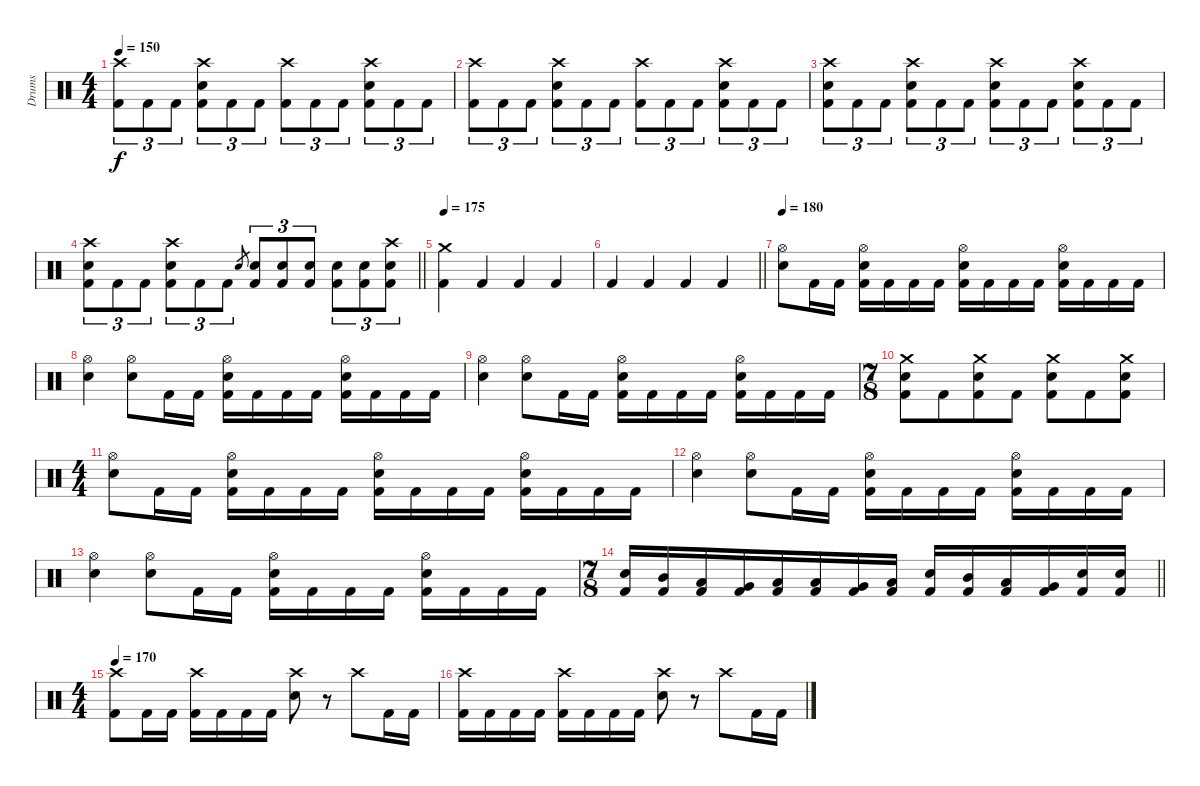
\track ("Drums" "Drums") {instrument percussion}
\staff {score}
\articulation defaults
\ts (4 4)
\tempo 150
\clef neutral
\ks c
("Crash high (hit)" "Kick (hit) 2").8{tu (3 2) dy f} "Kick (hit) 2".8{tu (3 2)} "Kick (hit) 2".8{tu (3 2)} ("Crash high (hit)" "Electric Snare (hit)" "Kick (hit) 2").8{tu (3 2)} "Kick (hit) 2".8{tu (3 2)} "Kick (hit) 2".8{tu (3 2)} ("Crash high (hit)" "Kick (hit) 2").8{tu (3 2)} "Kick (hit) 2".8{tu (3 2)} "Kick (hit) 2".8{tu (3 2)} ("Crash high (hit)" "Electric Snare (hit)" "Kick (hit) 2").8{tu (3 2)} "Kick (hit) 2".8{tu (3 2)} "Kick (hit) 2".8{tu (3 2)} |
("Crash high (hit)" "Kick (hit) 2").8{tu (3 2)} "Kick (hit) 2".8{tu (3 2)} "Kick (hit) 2".8{tu (3 2)} ("Crash high (hit)" "Electric Snare (hit)" "Kick (hit) 2").8{tu (3 2)} "Kick (hit) 2".8{tu (3 2)} "Kick (hit) 2".8{tu (3 2)} ("Crash high (hit)" "Kick (hit) 2").8{tu (3 2)} "Kick (hit) 2".8{tu (3 2)} "Kick (hit) 2".8{tu (3 2)} ("Crash high (hit)" "Electric Snare (hit)" "Kick (hit) 2").8{tu (3 2)} "Kick (hit) 2".8{tu (3 2)} "Kick (hit) 2".8{tu (3 2)} |
("Crash high (hit)" "Electric Snare (hit)" "Kick (hit) 2").8{tu (3 2)} "Kick (hit) 2".8{tu (3 2)} "Kick (hit) 2".8{tu (3 2)} ("Crash high (hit)" "Electric Snare (hit)" "Kick (hit) 2").8{tu (3 2)} "Kick (hit) 2".8{tu (3 2)} "Kick (hit) 2".8{tu (3 2)} ("Crash high (hit)" "Electric Snare (hit)" "Kick (hit) 2").8{tu (3 2)} "Kick (hit) 2".8{tu (3 2)} "Kick (hit) 2".8{tu (3 2)} ("Crash high (hit)" "Electric Snare (hit)" "Kick (hit) 2").8{tu (3 2)} "Kick (hit) 2".8{tu (3 2)} "Kick (hit) 2".8{tu (3 2)} |
\barLineRight lightlight
("Crash high (hit)" "Electric Snare (hit)" "Kick (hit) 2").8{tu (3 2)} "Kick (hit) 2".8{tu (3 2)} "Kick (hit) 2".8{tu (3 2)} ("Crash high (hit)" "Electric Snare (hit)" "Kick (hit) 2").8{tu (3 2)} "Kick (hit) 2".8{tu (3 2)} "Kick (hit) 2".8{tu (3 2)} "Electric Snare (hit)".8{gr} ("Electric Snare (hit)" "Kick (hit) 2").8{tu (3 2)} ("Electric Snare (hit)" "Kick (hit) 2").8{tu (3 2)} ("Electric Snare (hit)" "Kick (hit) 2").8{tu (3 2)} ("Electric Snare (hit)" "Kick (hit) 2").8{tu (3 2)} ("Electric Snare (hit)" "Kick (hit) 2").8{tu (3 2)} ("Crash high (hit)" "Electric Snare (hit)" "Kick (hit) 2").8{tu (3 2)} |
\tempo 175
("Crash medium (hit)" "Kick (hit) 2").4 "Kick (hit) 2".4 "Kick (hit) 2".4 "Kick (hit) 2".4 |
\barLineRight lightlight "Kick (hit) 2".4 "Kick (hit) 2".4 "Kick (hit) 2".4 "Kick (hit) 2".4
|
\tempo 180
("Hi-Hat (open)" "Electric Snare (hit)").8 "Kick (hit) 2".16 "Kick (hit) 2".16 ("Hi-Hat (open)" "Electric Snare (hit)" "Kick (hit) 2").16 "Kick (hit) 2".16 "Kick (hit) 2".16 "Kick (hit) 2".16 ("Hi-Hat (open)" "Electric Snare (hit)" "Kick (hit) 2").16 "Kick (hit) 2".16 "Kick (hit) 2".16 "Kick (hit) 2".16 ("Hi-Hat (open)" "Electric Snare (hit)" "Kick (hit) 2").16 "Kick (hit) 2".16 "Kick (hit) 2".16 "Kick (hit) 2".16 |
("Hi-Hat (open)" "Electric Snare (hit)").4 ("Hi-Hat (open)" "Electric Snare (hit)").8 "Kick (hit) 2".16 "Kick (hit) 2".16 ("Hi-Hat (open)" "Electric Snare (hit)" "Kick (hit) 2").16 "Kick (hit) 2".16 "Kick (hit) 2".16 "Kick (hit) 2".16 ("Hi-Hat (open)" "Electric Snare (hit)" "Kick (hit) 2").16 "Kick (hit) 2".16 "Kick (hit) 2".16 "Kick (hit) 2".16 |
("Hi-Hat (open)" "Electric Snare (hit)").4 ("Hi-Hat (open)" "Electric Snare (hit)").8 "Kick (hit) 2".16 "Kick (hit) 2".16 ("Hi-Hat (open)" "Electric Snare (hit)" "Kick (hit) 2").16 "Kick (hit) 2".16 "Kick (hit) 2".16 "Kick (hit) 2".16 ("Hi-Hat (open)" "Electric Snare (hit)" "Kick (hit) 2").16 "Kick (hit) 2".16 "Kick (hit) 2".16 "Kick (hit) 2".16 |
\ts (7 8)
("Crash medium (hit)" "Electric Snare (hit)" "Kick (hit) 2").8 "Kick (hit) 2".8 ("Crash medium (hit)" "Electric Snare (hit)" "Kick (hit) 2").8 "Kick (hit) 2".8 ("Crash medium (hit)" "Electric Snare (hit)" "Kick (hit) 2").8 "Kick (hit) 2".8 ("Crash medium (hit)" "Electric Snare (hit)" "Kick (hit) 2").8 |
\ts (4 4)
("Hi-Hat (open)" "Electric Snare (hit)").8 "Kick (hit) 2".16 "Kick (hit) 2".16 ("Hi-Hat (open)" "Electric Snare (hit)" "Kick (hit) 2").16 "Kick (hit) 2".16 "Kick (hit) 2".16 "Kick (hit) 2".16 ("Hi-Hat (open)" "Electric Snare (hit)" "Kick (hit) 2").16 "Kick (hit) 2".16 "Kick (hit) 2".16 "Kick (hit) 2".16 ("Hi-Hat (open)" "Electric Snare (hit)" "Kick (hit) 2").16 "Kick (hit) 2".16 "Kick (hit) 2".16 "Kick (hit) 2".16 |
("Hi-Hat (open)" "Electric Snare (hit)").4 ("Hi-Hat (open)" "Electric Snare (hit)").8 "Kick (hit) 2".16 "Kick (hit) 2".16 ("Hi-Hat (open)" "Electric Snare (hit)" "Kick (hit) 2").16 "Kick (hit) 2".16 "Kick (hit) 2".16 "Kick (hit) 2".16 ("Hi-Hat (open)" "Electric Snare (hit)" "Kick (hit) 2").16 "Kick (hit) 2".16 "Kick (hit) 2".16 "Kick (hit) 2".16 |
("Hi-Hat (open)" "Electric Snare (hit)").4 ("Hi-Hat (open)" "Electric Snare (hit)").8 "Kick (hit) 2".16 "Kick (hit) 2".16 ("Hi-Hat (open)" "Electric Snare (hit)" "Kick (hit) 2").16 "Kick (hit) 2".16 "Kick (hit) 2".16 "Kick (hit) 2".16 ("Hi-Hat (open)" "Electric Snare (hit)" "Kick (hit) 2").16 "Kick (hit) 2".16 "Kick (hit) 2".16 "Kick (hit) 2".16 |
\ts (7 8)
\barLineRight lightlight
("Electric Snare (hit)" "Kick (hit) 2").16 ("Mid Tom (hit)" "Kick (hit) 2").16 ("Low Tom (hit)" "Kick (hit) 2").16 ("Very Low Tom (hit)" "Kick (hit) 2").16 ("Low Tom (hit)" "Kick (hit) 2").16 ("Low Tom (hit)" "Kick (hit) 2").16 ("Very Low Tom (hit)" "Kick (hit) 2").16 ("Low Floor Tom (hit)" "Kick (hit) 2").16 ("Electric Snare (hit)" "Kick (hit) 2").16 ("Mid Tom (hit)" "Kick (hit) 2").16 ("Low Tom (hit)" "Kick (hit) 2").16 ("Very Low Tom (hit)" "Kick (hit) 2").16 ("Electric Snare (hit)" "Kick (hit) 2").16 ("Electric Snare (hit)" "Kick (hit) 2").16 |
\ts (4 4)
\tempo 170
("Crash high (hit)" "Kick (hit) 2").8 "Kick (hit) 2".16 "Kick (hit) 2".16 ("Crash high (hit)" "Kick (hit) 2").16 "Kick (hit) 2".16 "Kick (hit) 2".16 "Kick (hit) 2".16 ("Crash high (hit)" "Electric Snare (hit)").8 r.8 "Crash high (hit)".8 "Kick (hit) 2".16 "Kick (hit) 2".16 |
("Crash high (hit)" "Kick (hit) 2").16 "Kick (hit) 2".16 "Kick (hit) 2".16 "Kick (hit) 2".16 ("Crash high (hit)" "Kick (hit) 2").16 "Kick (hit) 2".16 "Kick (hit) 2".16 "Kick (hit) 2".16 ("Crash high (hit)" "Electric Snare (hit)").8 r.8 "Crash high (hit)".8 "Kick (hit) 2".16 "Kick (hit) 2".16
